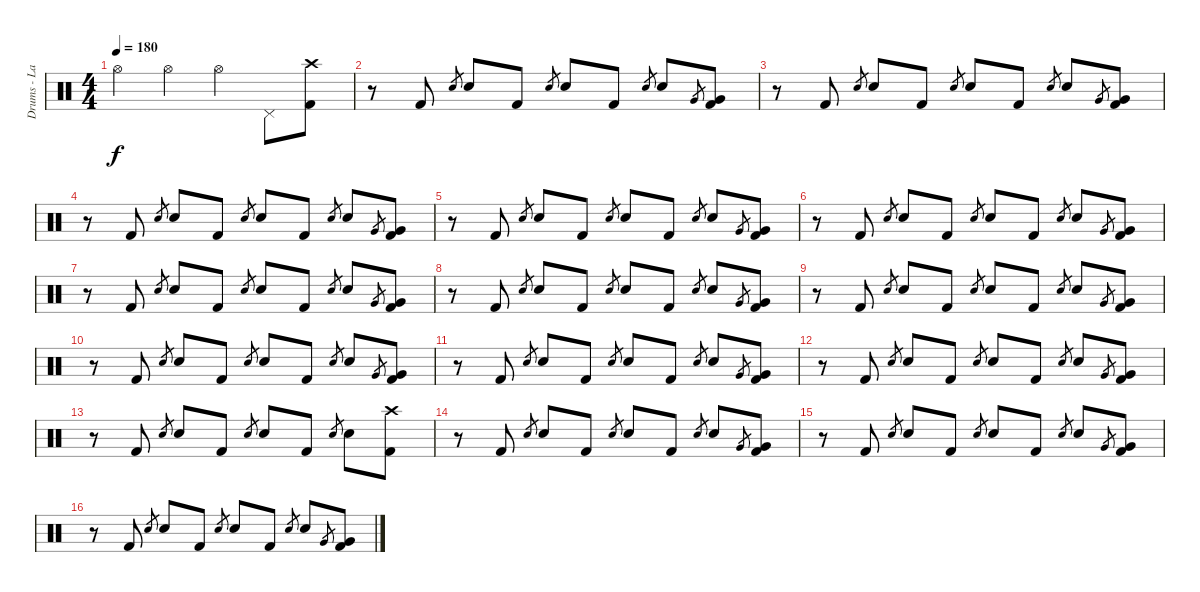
\track ("Drums - Lars" "Drums - La") {instrument percussion}
\staff {score}
\articulation defaults
\ts (4 4)
\tempo 180
\clef neutral
\ks c "Hi-Hat (open)".4{dy f} "Hi-Hat (open)".4 "Hi-Hat (open)".4 "Pedal Hi-Hat (hit)".8
("Crash high (hit)" "Kick (hit) 2").8 |
r.8 "Kick (hit) 2".8 "Snare (hit) 2".8{gr} "Snare (hit) 2".8 "Kick (hit) 2".8 "Snare (hit) 2".8{gr} "Snare (hit) 2".8 "Kick (hit) 2".8 "Snare (hit) 2".8{gr} "Snare (hit) 2".8 "Very Low Tom (hit)".8{gr} ("Very Low Tom (hit)" "Kick (hit) 2").8 |
r.8 "Kick (hit) 2".8 "Snare (hit) 2".8{gr} "Snare (hit) 2".8 "Kick (hit) 2".8 "Snare (hit) 2".8{gr} "Snare (hit) 2".8 "Kick (hit) 2".8 "Snare (hit) 2".8{gr} "Snare (hit) 2".8 "Very Low Tom (hit)".8{gr} ("Very Low Tom (hit)" "Kick (hit) 2").8 |
r.8 "Kick (hit) 2".8 "Snare (hit) 2".8{gr} "Snare (hit) 2".8 "Kick (hit) 2".8 "Snare (hit) 2".8{gr} "Snare (hit) 2".8 "Kick (hit) 2".8 "Snare (hit) 2".8{gr} "Snare (hit) 2".8 "Very Low Tom (hit)".8{gr} ("Very Low Tom (hit)" "Kick (hit) 2").8 |
r.8 "Kick (hit) 2".8 "Snare (hit) 2".8{gr} "Snare (hit) 2".8 "Kick (hit) 2".8 "Snare (hit) 2".8{gr} "Snare (hit) 2".8 "Kick (hit) 2".8 "Snare (hit) 2".8{gr} "Snare (hit) 2".8 "Very Low Tom (hit)".8{gr} ("Very Low Tom (hit)" "Kick (hit) 2").8 |
r.8 "Kick (hit) 2".8 "Snare (hit) 2".8{gr} "Snare (hit) 2".8 "Kick (hit) 2".8 "Snare (hit) 2".8{gr} "Snare (hit) 2".8 "Kick (hit) 2".8 "Snare (hit) 2".8{gr} "Snare (hit) 2".8 "Very Low Tom (hit)".8{gr} ("Very Low Tom (hit)" "Kick (hit) 2").8 |
r.8 "Kick (hit) 2".8 "Snare (hit) 2".8{gr} "Snare (hit) 2".8 "Kick (hit) 2".8 "Snare (hit) 2".8{gr} "Snare (hit) 2".8 "Kick (hit) 2".8 "Snare (hit) 2".8{gr} "Snare (hit) 2".8 "Very Low Tom (hit)".8{gr} ("Very Low Tom (hit)" "Kick (hit) 2").8 |
r.8 "Kick (hit) 2".8 "Snare (hit) 2".8{gr} "Snare (hit) 2".8 "Kick (hit) 2".8 "Snare (hit) 2".8{gr} "Snare (hit) 2".8 "Kick (hit) 2".8 "Snare (hit) 2".8{gr} "Snare (hit) 2".8 "Very Low Tom (hit)".8{gr} ("Very Low Tom (hit)" "Kick (hit) 2").8 |
r.8 "Kick (hit) 2".8 "Snare (hit) 2".8{gr} "Snare (hit) 2".8 "Kick (hit) 2".8 "Snare (hit) 2".8{gr} "Snare (hit) 2".8 "Kick (hit) 2".8 "Snare (hit) 2".8{gr} "Snare (hit) 2".8 "Very Low Tom (hit)".8{gr} ("Very Low Tom (hit)" "Kick (hit) 2").8 |
r.8 "Kick (hit) 2".8 "Snare (hit) 2".8{gr} "Snare (hit) 2".8 "Kick (hit) 2".8 "Snare (hit) 2".8{gr} "Snare (hit) 2".8 "Kick (hit) 2".8 "Snare (hit) 2".8{gr} "Snare (hit) 2".8 "Very Low Tom (hit)".8{gr} ("Very Low Tom (hit)" "Kick (hit) 2").8 |
r.8 "Kick (hit) 2".8 "Snare (hit) 2".8{gr} "Snare (hit) 2".8 "Kick (hit) 2".8 "Snare (hit) 2".8{gr} "Snare (hit) 2".8 "Kick (hit) 2".8 "Snare (hit) 2".8{gr} "Snare (hit) 2".8 "Very Low Tom (hit)".8{gr} ("Very Low Tom (hit)" "Kick (hit) 2").8 |
r.8 "Kick (hit) 2".8 "Snare (hit) 2".8{gr} "Snare (hit) 2".8 "Kick (hit) 2".8 "Snare (hit) 2".8{gr} "Snare (hit) 2".8 "Kick (hit) 2".8 "Snare (hit) 2".8{gr} "Snare (hit) 2".8 "Very Low Tom (hit)".8{gr} ("Very Low Tom (hit)" "Kick (hit) 2").8 |
r.8 "Kick (hit) 2".8 "Snare (hit) 2".8{gr} "Snare (hit) 2".8 "Kick (hit) 2".8 "Snare (hit) 2".8{gr} "Snare (hit) 2".8 "Kick (hit) 2".8 "Snare (hit) 2".8{gr} "Snare (hit) 2".8 ("Crash high (hit)" "Kick (hit) 2").8 |
r.8 "Kick (hit) 2".8 "Snare (hit) 2".8{gr} "Snare (hit) 2".8 "Kick (hit) 2".8 "Snare (hit) 2".8{gr} "Snare (hit) 2".8 "Kick (hit) 2".8 "Snare (hit) 2".8{gr} "Snare (hit) 2".8 "Very Low Tom (hit)".8{gr} ("Very Low Tom (hit)" "Kick (hit) 2").8 |
r.8 "Kick (hit) 2".8 "Snare (hit) 2".8{gr} "Snare (hit) 2".8 "Kick (hit) 2".8 "Snare (hit) 2".8{gr} "Snare (hit) 2".8 "Kick (hit) 2".8 "Snare (hit) 2".8{gr} "Snare (hit) 2".8 "Very Low Tom (hit)".8{gr} ("Very Low Tom (hit)" "Kick (hit) 2").8 |
r.8 "Kick (hit) 2".8 "Snare (hit) 2".8{gr} "Snare (hit) 2".8 "Kick (hit) 2".8 "Snare (hit) 2".8{gr} "Snare (hit) 2".8 "Kick (hit) 2".8 "Snare (hit) 2".8{gr} "Snare (hit) 2".8 "Very Low Tom (hit)".8{gr} ("Very Low Tom (hit)" "Kick (hit) 2").8
